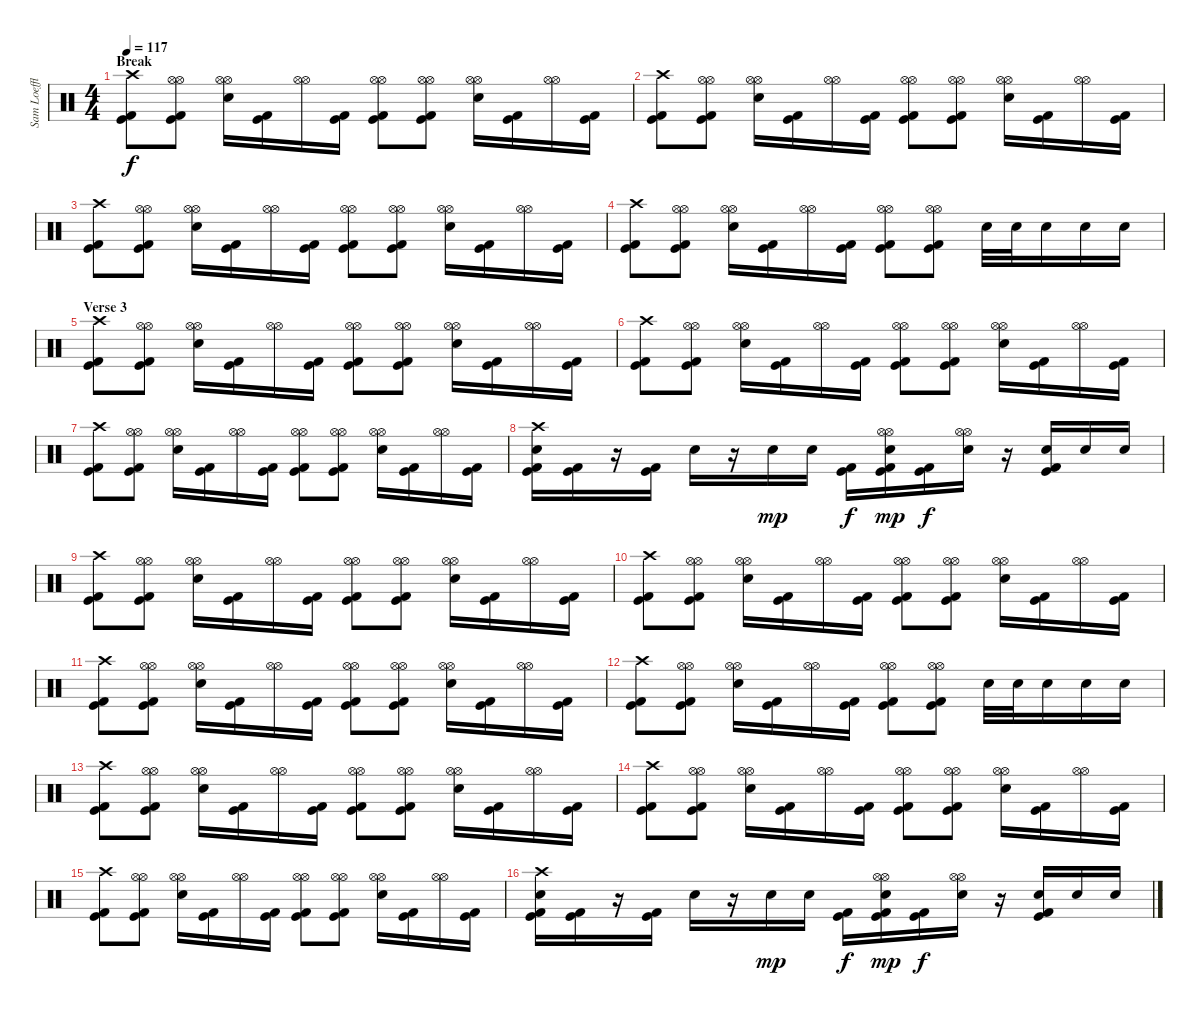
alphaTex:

\track ("Sam Loeffler - Drums" "Sam Loeffl") {instrument percussion}
\staff {score}
\articulation defaults
\ts (4 4)
\section ("" "Break")
\tempo 117
\clef neutral
\ks c
("Crash high (hit)" "Kick (hit)" "Kick (hit) 2").8{dy f} ("Hi-Hat (open)" "Hi-Hat (open)" "Kick (hit)" "Kick (hit) 2").8 ("Hi-Hat (open)" "Hi-Hat (open)" "Electric Snare (hit)").16 ("Kick (hit)" "Kick (hit) 2").16 ("Hi-Hat (open)" "Hi-Hat (open)").16 ("Kick (hit)" "Kick (hit) 2").16 ("Hi-Hat (open)" "Hi-Hat (open)" "Kick (hit)" "Kick (hit) 2").8 ("Hi-Hat (open)" "Hi-Hat (open)" "Kick (hit)" "Kick (hit) 2").8 ("Hi-Hat (open)" "Hi-Hat (open)" "Electric Snare (hit)").16 ("Kick (hit)" "Kick (hit) 2").16 ("Hi-Hat (open)" "Hi-Hat (open)").16 ("Kick (hit)" "Kick (hit) 2").16 |
("Crash high (hit)" "Kick (hit)" "Kick (hit) 2").8 ("Hi-Hat (open)" "Hi-Hat (open)" "Kick (hit)" "Kick (hit) 2").8 ("Hi-Hat (open)" "Hi-Hat (open)" "Electric Snare (hit)").16 ("Kick (hit)" "Kick (hit) 2").16 ("Hi-Hat (open)" "Hi-Hat (open)").16 ("Kick (hit)" "Kick (hit) 2").16 ("Hi-Hat (open)" "Hi-Hat (open)" "Kick (hit)" "Kick (hit) 2").8 ("Hi-Hat (open)" "Hi-Hat (open)" "Kick (hit)" "Kick (hit) 2").8 ("Hi-Hat (open)" "Hi-Hat (open)" "Electric Snare (hit)").16 ("Kick (hit)" "Kick (hit) 2").16 ("Hi-Hat (open)" "Hi-Hat (open)").16 ("Kick (hit)" "Kick (hit) 2").16 |
("Crash high (hit)" "Kick (hit)" "Kick (hit) 2").8 ("Hi-Hat (open)" "Hi-Hat (open)" "Kick (hit)" "Kick (hit) 2").8 ("Hi-Hat (open)" "Hi-Hat (open)" "Electric Snare (hit)").16 ("Kick (hit)" "Kick (hit) 2").16 ("Hi-Hat (open)" "Hi-Hat (open)").16 ("Kick (hit)" "Kick (hit) 2").16 ("Hi-Hat (open)" "Hi-Hat (open)" "Kick (hit)" "Kick (hit) 2").8 ("Hi-Hat (open)" "Hi-Hat (open)" "Kick (hit)" "Kick (hit) 2").8 ("Hi-Hat (open)" "Hi-Hat (open)" "Electric Snare (hit)").16 ("Kick (hit)" "Kick (hit) 2").16 ("Hi-Hat (open)" "Hi-Hat (open)").16 ("Kick (hit)" "Kick (hit) 2").16 |
("Crash high (hit)" "Kick (hit)" "Kick (hit) 2").8 ("Hi-Hat (open)" "Hi-Hat (open)" "Kick (hit)" "Kick (hit) 2").8 ("Hi-Hat (open)" "Hi-Hat (open)" "Electric Snare (hit)").16 ("Kick (hit)" "Kick (hit) 2").16 ("Hi-Hat (open)" "Hi-Hat (open)").16 ("Kick (hit)" "Kick (hit) 2").16 ("Hi-Hat (open)" "Hi-Hat (open)" "Kick (hit)" "Kick (hit) 2").8 ("Hi-Hat (open)" "Hi-Hat (open)" "Kick (hit)" "Kick (hit) 2").8 "Electric Snare (hit)".32 "Electric Snare (hit)".32 "Electric Snare (hit)".16 "Electric Snare (hit)".16 "Electric Snare (hit)".16 |
\section ("" "Verse 3")
("Crash high (hit)" "Kick (hit)" "Kick (hit) 2").8 ("Hi-Hat (open)" "Hi-Hat (open)" "Kick (hit)" "Kick (hit) 2").8 ("Hi-Hat (open)" "Hi-Hat (open)" "Electric Snare (hit)").16 ("Kick (hit)" "Kick (hit) 2").16 ("Hi-Hat (open)" "Hi-Hat (open)").16 ("Kick (hit)" "Kick (hit) 2").16 ("Hi-Hat (open)" "Hi-Hat (open)" "Kick (hit)" "Kick (hit) 2").8 ("Hi-Hat (open)" "Hi-Hat (open)" "Kick (hit)" "Kick (hit) 2").8 ("Hi-Hat (open)" "Hi-Hat (open)" "Electric Snare (hit)").16 ("Kick (hit)" "Kick (hit) 2").16 ("Hi-Hat (open)" "Hi-Hat (open)").16 ("Kick (hit)" "Kick (hit) 2").16 |
("Crash high (hit)" "Kick (hit)" "Kick (hit) 2").8 ("Hi-Hat (open)" "Hi-Hat (open)" "Kick (hit)" "Kick (hit) 2").8 ("Hi-Hat (open)" "Hi-Hat (open)" "Electric Snare (hit)").16 ("Kick (hit)" "Kick (hit) 2").16 ("Hi-Hat (open)" "Hi-Hat (open)").16 ("Kick (hit)" "Kick (hit) 2").16 ("Hi-Hat (open)" "Hi-Hat (open)" "Kick (hit)" "Kick (hit) 2").8 ("Hi-Hat (open)" "Hi-Hat (open)" "Kick (hit)" "Kick (hit) 2").8 ("Hi-Hat (open)" "Hi-Hat (open)" "Electric Snare (hit)").16 ("Kick (hit)" "Kick (hit) 2").16 ("Hi-Hat (open)" "Hi-Hat (open)").16 ("Kick (hit)" "Kick (hit) 2").16 |
("Crash high (hit)" "Kick (hit)" "Kick (hit) 2").8 ("Hi-Hat (open)" "Hi-Hat (open)" "Kick (hit)" "Kick (hit) 2").8 ("Hi-Hat (open)" "Hi-Hat (open)" "Electric Snare (hit)").16 ("Kick (hit)" "Kick (hit) 2").16 ("Hi-Hat (open)" "Hi-Hat (open)").16 ("Kick (hit)" "Kick (hit) 2").16 ("Hi-Hat (open)" "Hi-Hat (open)" "Kick (hit)" "Kick (hit) 2").8 ("Hi-Hat (open)" "Hi-Hat (open)" "Kick (hit)" "Kick (hit) 2").8 ("Hi-Hat (open)" "Hi-Hat (open)" "Electric Snare (hit)").16 ("Kick (hit)" "Kick (hit) 2").16 ("Hi-Hat (open)" "Hi-Hat (open)").16 ("Kick (hit)" "Kick (hit) 2").16 |
("Crash high (hit)" "Electric Snare (hit)" "Kick (hit)" "Kick (hit) 2").16 ("Kick (hit)" "Kick (hit) 2").16 r.16 ("Kick (hit)" "Kick (hit) 2").16 "Electric Snare (hit)".16 r.16 "Electric Snare (hit)".16{dy mp} "Electric Snare (hit)".16 ("Kick (hit)" "Kick (hit) 2").16{dy f} ("Hi-Hat (open)" "Hi-Hat (open)" "Electric Snare (hit)" "Kick (hit)" "Kick (hit) 2").16{dy mp} ("Kick (hit)" "Kick (hit) 2").16{dy f} ("Hi-Hat (open)" "Hi-Hat (open)" "Electric Snare (hit)").16 r.16 ("Electric Snare (hit)" "Kick (hit)" "Kick (hit) 2").16 "Electric Snare (hit)".16 "Electric Snare (hit)".16 |
("Crash high (hit)" "Kick (hit)" "Kick (hit) 2").8 ("Hi-Hat (open)" "Hi-Hat (open)" "Kick (hit)" "Kick (hit) 2").8 ("Hi-Hat (open)" "Hi-Hat (open)" "Electric Snare (hit)").16 ("Kick (hit)" "Kick (hit) 2").16 ("Hi-Hat (open)" "Hi-Hat (open)").16 ("Kick (hit)" "Kick (hit) 2").16 ("Hi-Hat (open)" "Hi-Hat (open)" "Kick (hit)" "Kick (hit) 2").8 ("Hi-Hat (open)" "Hi-Hat (open)" "Kick (hit)" "Kick (hit) 2").8 ("Hi-Hat (open)" "Hi-Hat (open)" "Electric Snare (hit)").16 ("Kick (hit)" "Kick (hit) 2").16 ("Hi-Hat (open)" "Hi-Hat (open)").16 ("Kick (hit)" "Kick (hit) 2").16 |
("Crash high (hit)" "Kick (hit)" "Kick (hit) 2").8 ("Hi-Hat (open)" "Hi-Hat (open)" "Kick (hit)" "Kick (hit) 2").8 ("Hi-Hat (open)" "Hi-Hat (open)" "Electric Snare (hit)").16 ("Kick (hit)" "Kick (hit) 2").16 ("Hi-Hat (open)" "Hi-Hat (open)").16 ("Kick (hit)" "Kick (hit) 2").16 ("Hi-Hat (open)" "Hi-Hat (open)" "Kick (hit)" "Kick (hit) 2").8 ("Hi-Hat (open)" "Hi-Hat (open)" "Kick (hit)" "Kick (hit) 2").8 ("Hi-Hat (open)" "Hi-Hat (open)" "Electric Snare (hit)").16 ("Kick (hit)" "Kick (hit) 2").16 ("Hi-Hat (open)" "Hi-Hat (open)").16 ("Kick (hit)" "Kick (hit) 2").16 |
("Crash high (hit)" "Kick (hit)" "Kick (hit) 2").8 ("Hi-Hat (open)" "Hi-Hat (open)" "Kick (hit)" "Kick (hit) 2").8 ("Hi-Hat (open)" "Hi-Hat (open)" "Electric Snare (hit)").16 ("Kick (hit)" "Kick (hit) 2").16 ("Hi-Hat (open)" "Hi-Hat (open)").16 ("Kick (hit)" "Kick (hit) 2").16 ("Hi-Hat (open)" "Hi-Hat (open)" "Kick (hit)" "Kick (hit) 2").8 ("Hi-Hat (open)" "Hi-Hat (open)" "Kick (hit)" "Kick (hit) 2").8 ("Hi-Hat (open)" "Hi-Hat (open)" "Electric Snare (hit)").16 ("Kick (hit)" "Kick (hit) 2").16 ("Hi-Hat (open)" "Hi-Hat (open)").16 ("Kick (hit)" "Kick (hit) 2").16 |
("Crash high (hit)" "Kick (hit)" "Kick (hit) 2").8 ("Hi-Hat (open)" "Hi-Hat (open)" "Kick (hit)" "Kick (hit) 2").8 ("Hi-Hat (open)" "Hi-Hat (open)" "Electric Snare (hit)").16 ("Kick (hit)" "Kick (hit) 2").16 ("Hi-Hat (open)" "Hi-Hat (open)").16 ("Kick (hit)" "Kick (hit) 2").16 ("Hi-Hat (open)" "Hi-Hat (open)" "Kick (hit)" "Kick (hit) 2").8 ("Hi-Hat (open)" "Hi-Hat (open)" "Kick (hit)" "Kick (hit) 2").8 "Electric Snare (hit)".32 "Electric Snare (hit)".32 "Electric Snare (hit)".16 "Electric Snare (hit)".16 "Electric Snare (hit)".16 |
("Crash high (hit)" "Kick (hit)" "Kick (hit) 2").8 ("Hi-Hat (open)" "Hi-Hat (open)" "Kick (hit)" "Kick (hit) 2").8 ("Hi-Hat (open)" "Hi-Hat (open)" "Electric Snare (hit)").16 ("Kick (hit)" "Kick (hit) 2").16 ("Hi-Hat (open)" "Hi-Hat (open)").16 ("Kick (hit)" "Kick (hit) 2").16 ("Hi-Hat (open)" "Hi-Hat (open)" "Kick (hit)" "Kick (hit) 2").8 ("Hi-Hat (open)" "Hi-Hat (open)" "Kick (hit)" "Kick (hit) 2").8 ("Hi-Hat (open)" "Hi-Hat (open)" "Electric Snare (hit)").16 ("Kick (hit)" "Kick (hit) 2").16 ("Hi-Hat (open)" "Hi-Hat (open)").16 ("Kick (hit)" "Kick (hit) 2").16 |
("Crash high (hit)" "Kick (hit)" "Kick (hit) 2").8 ("Hi-Hat (open)" "Hi-Hat (open)" "Kick (hit)" "Kick (hit) 2").8 ("Hi-Hat (open)" "Hi-Hat (open)" "Electric Snare (hit)").16 ("Kick (hit)" "Kick (hit) 2").16 ("Hi-Hat (open)" "Hi-Hat (open)").16 ("Kick (hit)" "Kick (hit) 2").16 ("Hi-Hat (open)" "Hi-Hat (open)" "Kick (hit)" "Kick (hit) 2").8 ("Hi-Hat (open)" "Hi-Hat (open)" "Kick (hit)" "Kick (hit) 2").8 ("Hi-Hat (open)" "Hi-Hat (open)" "Electric Snare (hit)").16 ("Kick (hit)" "Kick (hit) 2").16 ("Hi-Hat (open)" "Hi-Hat (open)").16 ("Kick (hit)" "Kick (hit) 2").16 |
("Crash high (hit)" "Kick (hit)" "Kick (hit) 2").8 ("Hi-Hat (open)" "Hi-Hat (open)" "Kick (hit)" "Kick (hit) 2").8 ("Hi-Hat (open)" "Hi-Hat (open)" "Electric Snare (hit)").16 ("Kick (hit)" "Kick (hit) 2").16 ("Hi-Hat (open)" "Hi-Hat (open)").16 ("Kick (hit)" "Kick (hit) 2").16 ("Hi-Hat (open)" "Hi-Hat (open)" "Kick (hit)" "Kick (hit) 2").8 ("Hi-Hat (open)" "Hi-Hat (open)" "Kick (hit)" "Kick (hit) 2").8 ("Hi-Hat (open)" "Hi-Hat (open)" "Electric Snare (hit)").16 ("Kick (hit)" "Kick (hit) 2").16 ("Hi-Hat (open)" "Hi-Hat (open)").16 ("Kick (hit)" "Kick (hit) 2").16 |
("Crash high (hit)" "Electric Snare (hit)" "Kick (hit)" "Kick (hit) 2").16 ("Kick (hit)" "Kick (hit) 2").16 r.16 ("Kick (hit)" "Kick (hit) 2").16 "Electric Snare (hit)".16 r.16 "Electric Snare (hit)".16{dy mp} "Electric Snare (hit)".16 ("Kick (hit)" "Kick (hit) 2").16{dy f} ("Hi-Hat (open)" "Hi-Hat (open)" "Electric Snare (hit)" "Kick (hit)" "Kick (hit) 2").16{dy mp} ("Kick (hit)" "Kick (hit) 2").16{dy f} ("Hi-Hat (open)" "Hi-Hat (open)" "Electric Snare (hit)").16 r.16 ("Electric Snare (hit)" "Kick (hit)" "Kick (hit) 2").16 "Electric Snare (hit)".16 "Electric Snare (hit)".16
